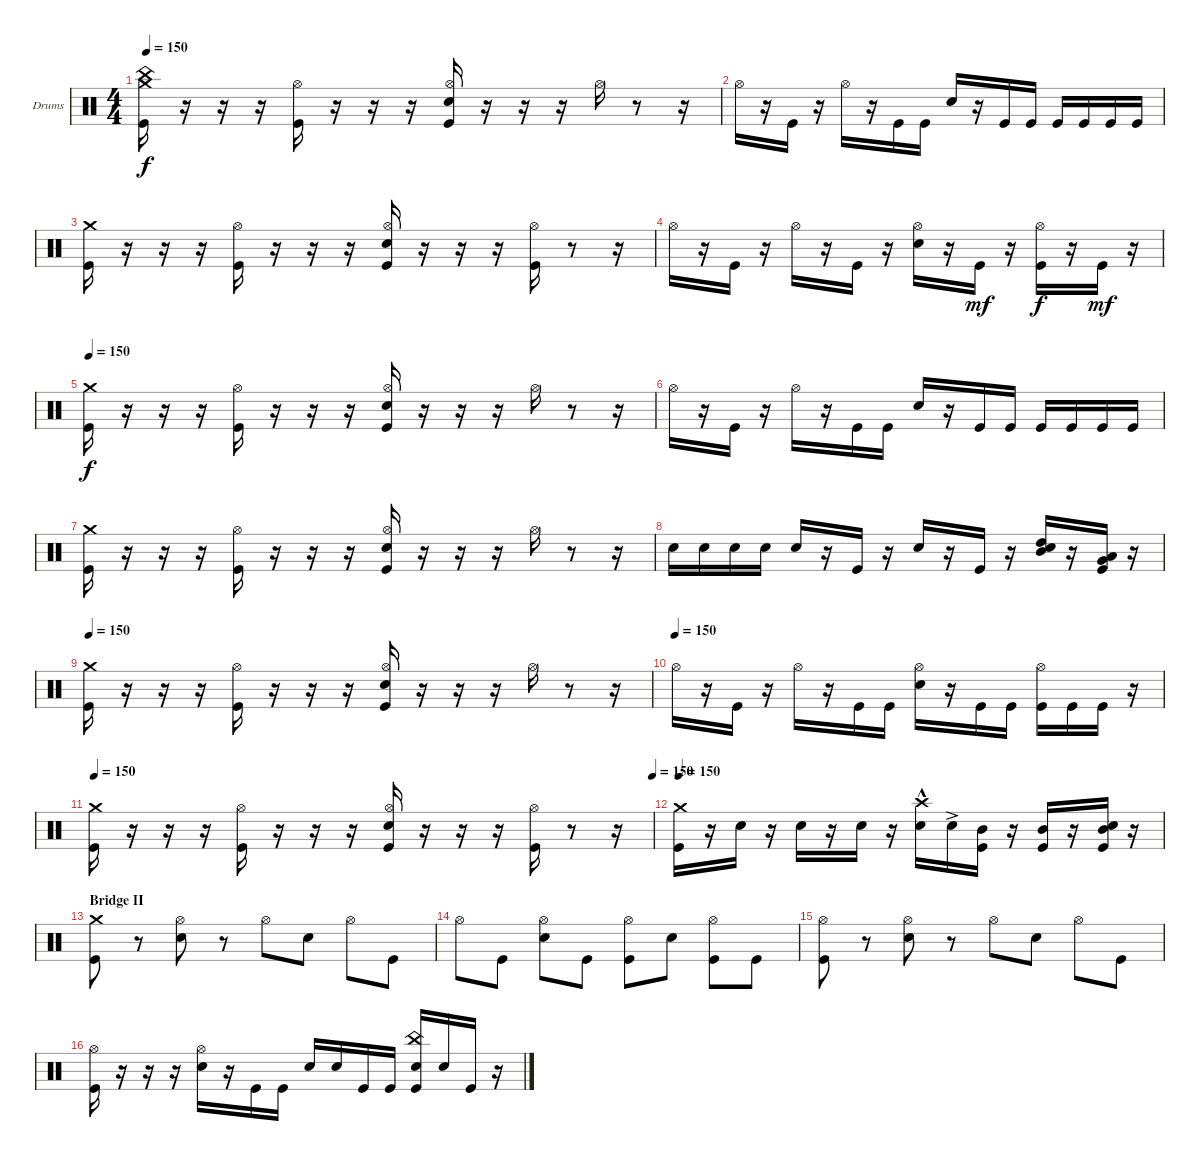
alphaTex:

\bracketExtendMode groupsimilarinstruments
\firstSystemTrackNameOrientation horizontal
\otherSystemsTrackNameOrientation horizontal
\track ("Cory La Quay" "Drums") {instrument percussion}
\staff {score}
\articulation defaults
\ts (4 4)
\tempo 150
\clef neutral
\ks c
("Crash medium (hit)" "Kick (hit)" "China (hit)").16{dy f} r.16 r.16 r.16 ("Hi-Hat (open)" "Kick (hit)").16 r.16 r.16 r.16 ("Hi-Hat (open)" "Snare (hit) 2" "Kick (hit)").16 r.16 r.16 r.16 "Hi-Hat (open)".16 r.8 r.16 |
"Hi-Hat (open)".16 r.16 "Kick (hit)".16 r.16 "Hi-Hat (open)".16 r.16 "Kick (hit)".16 "Kick (hit)".16 "Snare (hit) 2".16 r.16 "Kick (hit)".16 "Kick (hit)".16 "Kick (hit)".16 "Kick (hit)".16 "Kick (hit)".16 "Kick (hit)".16 |
("Crash medium (hit)" "Kick (hit)").16 r.16 r.16 r.16 ("Hi-Hat (open)" "Kick (hit)").16 r.16 r.16 r.16 ("Hi-Hat (open)" "Snare (hit) 2" "Kick (hit)").16 r.16 r.16 r.16 ("Hi-Hat (open)" "Kick (hit)").16 r.8 r.16 |
"Hi-Hat (open)".16 r.16 "Kick (hit)".16 r.16 "Hi-Hat (open)".16 r.16 "Kick (hit)".16 r.16 ("Hi-Hat (open)" "Snare (hit) 2").16 r.16 "Kick (hit)".16{dy mf} r.16 ("Hi-Hat (open)" "Kick (hit)").16{dy f} r.16 "Kick (hit)".16{dy mf} r.16 |
\tempo 150
("Crash medium (hit)" "Kick (hit)").16{dy f} r.16 r.16 r.16 ("Hi-Hat (open)" "Kick (hit)").16 r.16 r.16 r.16 ("Hi-Hat (open)" "Snare (hit) 2" "Kick (hit)").16 r.16 r.16 r.16 "Hi-Hat (open)".16 r.8 r.16 |
"Hi-Hat (open)".16 r.16 "Kick (hit)".16 r.16 "Hi-Hat (open)".16 r.16 "Kick (hit)".16 "Kick (hit)".16 "Snare (hit) 2".16 r.16 "Kick (hit)".16 "Kick (hit)".16 "Kick (hit)".16 "Kick (hit)".16 "Kick (hit)".16 "Kick (hit)".16 |
("Crash medium (hit)" "Kick (hit)").16 r.16 r.16 r.16 ("Hi-Hat (open)" "Kick (hit)").16 r.16 r.16 r.16 ("Hi-Hat (open)" "Snare (hit) 2" "Kick (hit)").16 r.16 r.16 r.16 "Hi-Hat (open)".16 r.8 r.16 |
"Snare (hit) 2".16 "Snare (hit) 2".16 "Snare (hit) 2".16 "Snare (hit) 2".16 "Snare (hit) 2".16 r.16 "Kick (hit)".16 r.16 "Snare (hit) 2".16 r.16 "Kick (hit)".16 r.16 ("Snare (hit) 2" "High Tom (hit)" "Mid Tom (hit)").16 r.16 ("Kick (hit)" "Low Tom (hit)" "Very Low Tom (hit)").16 r.16 |
\tempo 150
("Crash medium (hit)" "Kick (hit)").16 r.16 r.16 r.16 ("Hi-Hat (open)" "Kick (hit)").16 r.16 r.16 r.16 ("Hi-Hat (open)" "Snare (hit) 2" "Kick (hit)").16 r.16 r.16 r.16 "Hi-Hat (open)".16 r.8 r.16 |
\tempo (150)
"Hi-Hat (open)".16 r.16 "Kick (hit)".16 r.16 "Hi-Hat (open)".16 r.16 "Kick (hit)".16 "Kick (hit)".16 ("Hi-Hat (open)" "Snare (hit) 2").16 r.16 "Kick (hit)".16 "Kick (hit)".16 ("Hi-Hat (open)" "Kick (hit)").16 "Kick (hit)".16 "Kick (hit)".16 r.16 |
\tempo 150
\tempo (150 1)
("Crash medium (hit)" "Kick (hit)").16 r.16 r.16 r.16 ("Hi-Hat (open)" "Kick (hit)").16 r.16 r.16 r.16 ("Hi-Hat (open)" "Snare (hit) 2" "Kick (hit)").16 r.16 r.16 r.16 ("Hi-Hat (open)" "Kick (hit)").16 r.8 r.16 |
\tempo 150
("Crash medium (hit)" "Kick (hit)").16 r.16 "Snare (hit) 2".16 r.16 "Snare (hit) 2".16 r.16 "Snare (hit) 2".16 r.16 ("Crash high (hit)" "Snare (hit) 2"{hac}).16 "Snare (hit) 2"{ac}.16 ("Kick (hit)" "Mid Tom (hit)").16 r.16 ("Kick (hit)" "Mid Tom (hit)").16 r.16 ("Snare (hit) 2" "Kick (hit)" "Mid Tom (hit)").16 r.16 |
\section ("" "Bridge II")
("Crash medium (hit)" "Kick (hit)").8 r.8 ("Hi-Hat (open)" "Snare (hit) 2").8 r.8 "Hi-Hat (open)".8 "Snare (hit) 2".8 "Hi-Hat (open)".8 "Kick (hit)".8 |
"Hi-Hat (open)".8 "Kick (hit)".8 ("Hi-Hat (open)" "Snare (hit) 2").8 "Kick (hit)".8 ("Hi-Hat (open)" "Kick (hit)").8 "Snare (hit) 2".8 ("Hi-Hat (open)" "Kick (hit)").8 "Kick (hit)".8 |
("Hi-Hat (open)" "Kick (hit)").8 r.8 ("Hi-Hat (open)" "Snare (hit) 2").8 r.8 "Hi-Hat (open)".8 "Snare (hit) 2".8 "Hi-Hat (open)".8 "Kick (hit)".8 |
("Hi-Hat (open)" "Kick (hit)").16 r.16 r.16 r.16 ("Hi-Hat (open)" "Snare (hit) 2").16 r.16 "Kick (hit)".16 "Kick (hit)".16 "Snare (hit) 2".16 "Snare (hit) 2".16 "Kick (hit)".16 "Kick (hit)".16 ("China (hit)" "Snare (hit) 2" "Kick (hit)").16 "Snare (hit) 2".16 "Kick (hit)".16 r.16
